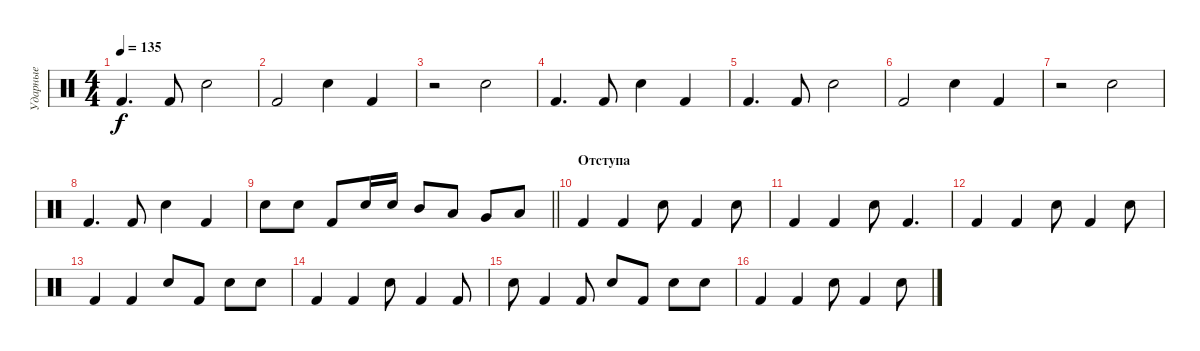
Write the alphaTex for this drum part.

\track ("Ударные" "Ударные") {instrument percussion}
\staff {score}
\articulation defaults
\ts (4 4)
\tempo 135
\clef neutral
\ks c "Kick (hit) 2".4{d dy f} "Kick (hit) 2".8 "Snare (hit) 2".2
|
"Kick (hit) 2".2 "Snare (hit) 2".4 "Kick (hit) 2".4 |
r.2 "Snare (hit) 2".2 |
"Kick (hit) 2".4{d} "Kick (hit) 2".8 "Snare (hit) 2".4 "Kick (hit) 2".4 |
"Kick (hit) 2".4{d} "Kick (hit) 2".8 "Snare (hit) 2".2 |
"Kick (hit) 2".2 "Snare (hit) 2".4 "Kick (hit) 2".4 |
r.2 "Snare (hit) 2".2 |
"Kick (hit) 2".4{d} "Kick (hit) 2".8 "Snare (hit) 2".4 "Kick (hit) 2".4 |
\barLineRight lightlight "Snare (hit) 2".8 "Snare (hit) 2".8 "Kick (hit) 2".8 "Snare (hit) 2".16 "Snare (hit) 2".16 "Mid Tom (hit)".8 "Low Tom (hit)".8 "Very Low Tom (hit)".8 "Low Floor Tom (hit)".8
|
\section ("" "Отступа")
"Kick (hit) 2".4 "Kick (hit) 2".4 "Snare (hit) 2".8 "Kick (hit) 2".4 "Snare (hit) 2".8 |
"Kick (hit) 2".4 "Kick (hit) 2".4 "Snare (hit) 2".8 "Kick (hit) 2".4{d} |
"Kick (hit) 2".4 "Kick (hit) 2".4 "Snare (hit) 2".8 "Kick (hit) 2".4 "Snare (hit) 2".8 |
"Kick (hit) 2".4 "Kick (hit) 2".4 "Snare (hit) 2".8 "Kick (hit) 2".8 "Snare (hit) 2".8 "Snare (hit) 2".8 |
"Kick (hit) 2".4 "Kick (hit) 2".4 "Snare (hit) 2".8 "Kick (hit) 2".4 "Kick (hit) 2".8 |
"Snare (hit) 2".8 "Kick (hit) 2".4 "Kick (hit) 2".8 "Snare (hit) 2".8 "Kick (hit) 2".8 "Snare (hit) 2".8 "Snare (hit) 2".8 |
"Kick (hit) 2".4 "Kick (hit) 2".4 "Snare (hit) 2".8 "Kick (hit) 2".4 "Snare (hit) 2".8
